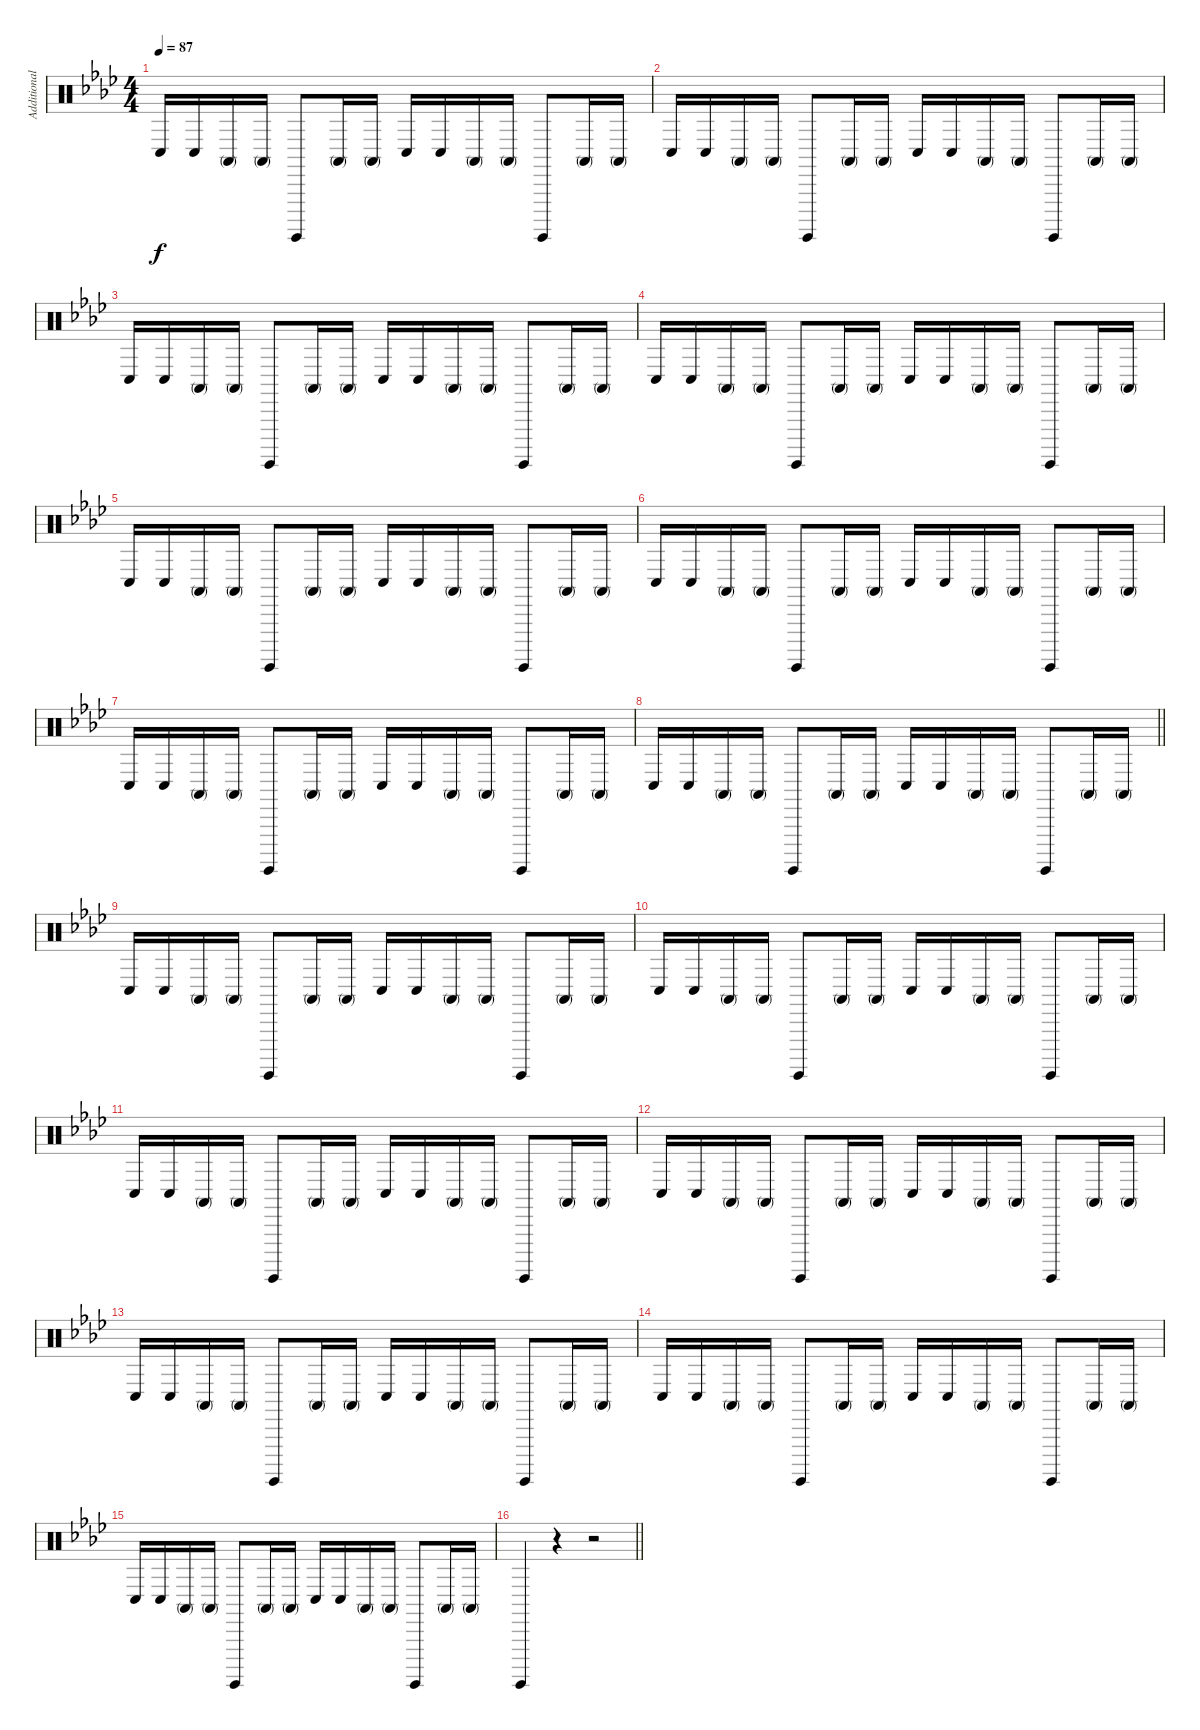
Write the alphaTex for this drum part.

\track ("Additional Percussion" "Additional") {instrument percussion}
\staff {score}
\articulation defaults
\ts (4 4)
\section ("" " ")
\tempo 87
\clef neutral
\ks fminor "Conga low (hit)".16{dy f} "Conga low (hit)".16 "Conga high (mute)".16 "Conga high (mute)".16 "Surdo (hit)".8 "Conga high (mute)".16 "Conga high (mute)".16 "Conga low (hit)".16 "Conga low (hit)".16 "Conga high (mute)".16 "Conga high (mute)".16 "Surdo (hit)".8 "Conga high (mute)".16 "Conga high (mute)".16
|
"Conga low (hit)".16 "Conga low (hit)".16 "Conga high (mute)".16 "Conga high (mute)".16 "Surdo (hit)".8 "Conga high (mute)".16 "Conga high (mute)".16 "Conga low (hit)".16 "Conga low (hit)".16 "Conga high (mute)".16 "Conga high (mute)".16 "Surdo (hit)".8 "Conga high (mute)".16 "Conga high (mute)".16 |
"Conga low (hit)".16 "Conga low (hit)".16 "Conga high (mute)".16 "Conga high (mute)".16 "Surdo (hit)".8 "Conga high (mute)".16 "Conga high (mute)".16 "Conga low (hit)".16 "Conga low (hit)".16 "Conga high (mute)".16 "Conga high (mute)".16 "Surdo (hit)".8 "Conga high (mute)".16 "Conga high (mute)".16 |
"Conga low (hit)".16 "Conga low (hit)".16 "Conga high (mute)".16 "Conga high (mute)".16 "Surdo (hit)".8 "Conga high (mute)".16 "Conga high (mute)".16 "Conga low (hit)".16 "Conga low (hit)".16 "Conga high (mute)".16 "Conga high (mute)".16 "Surdo (hit)".8 "Conga high (mute)".16 "Conga high (mute)".16 |
"Conga low (hit)".16 "Conga low (hit)".16 "Conga high (mute)".16 "Conga high (mute)".16 "Surdo (hit)".8 "Conga high (mute)".16 "Conga high (mute)".16 "Conga low (hit)".16 "Conga low (hit)".16 "Conga high (mute)".16 "Conga high (mute)".16 "Surdo (hit)".8 "Conga high (mute)".16 "Conga high (mute)".16 |
"Conga low (hit)".16 "Conga low (hit)".16 "Conga high (mute)".16 "Conga high (mute)".16 "Surdo (hit)".8 "Conga high (mute)".16 "Conga high (mute)".16 "Conga low (hit)".16 "Conga low (hit)".16 "Conga high (mute)".16 "Conga high (mute)".16 "Surdo (hit)".8 "Conga high (mute)".16 "Conga high (mute)".16 |
"Conga low (hit)".16 "Conga low (hit)".16 "Conga high (mute)".16 "Conga high (mute)".16 "Surdo (hit)".8 "Conga high (mute)".16 "Conga high (mute)".16 "Conga low (hit)".16 "Conga low (hit)".16 "Conga high (mute)".16 "Conga high (mute)".16 "Surdo (hit)".8 "Conga high (mute)".16 "Conga high (mute)".16 |
\barLineRight lightlight "Conga low (hit)".16 "Conga low (hit)".16 "Conga high (mute)".16 "Conga high (mute)".16 "Surdo (hit)".8 "Conga high (mute)".16 "Conga high (mute)".16 "Conga low (hit)".16 "Conga low (hit)".16 "Conga high (mute)".16 "Conga high (mute)".16 "Surdo (hit)".8 "Conga high (mute)".16 "Conga high (mute)".16
|
\section ("" " ")
"Conga low (hit)".16 "Conga low (hit)".16 "Conga high (mute)".16 "Conga high (mute)".16 "Surdo (hit)".8 "Conga high (mute)".16 "Conga high (mute)".16 "Conga low (hit)".16 "Conga low (hit)".16 "Conga high (mute)".16 "Conga high (mute)".16 "Surdo (hit)".8 "Conga high (mute)".16 "Conga high (mute)".16 |
"Conga low (hit)".16 "Conga low (hit)".16 "Conga high (mute)".16 "Conga high (mute)".16 "Surdo (hit)".8 "Conga high (mute)".16 "Conga high (mute)".16 "Conga low (hit)".16 "Conga low (hit)".16 "Conga high (mute)".16 "Conga high (mute)".16 "Surdo (hit)".8 "Conga high (mute)".16 "Conga high (mute)".16 |
"Conga low (hit)".16 "Conga low (hit)".16 "Conga high (mute)".16 "Conga high (mute)".16 "Surdo (hit)".8 "Conga high (mute)".16 "Conga high (mute)".16 "Conga low (hit)".16 "Conga low (hit)".16 "Conga high (mute)".16 "Conga high (mute)".16 "Surdo (hit)".8 "Conga high (mute)".16 "Conga high (mute)".16 |
"Conga low (hit)".16 "Conga low (hit)".16 "Conga high (mute)".16 "Conga high (mute)".16 "Surdo (hit)".8 "Conga high (mute)".16 "Conga high (mute)".16 "Conga low (hit)".16 "Conga low (hit)".16 "Conga high (mute)".16 "Conga high (mute)".16 "Surdo (hit)".8 "Conga high (mute)".16 "Conga high (mute)".16 |
"Conga low (hit)".16 "Conga low (hit)".16 "Conga high (mute)".16 "Conga high (mute)".16 "Surdo (hit)".8 "Conga high (mute)".16 "Conga high (mute)".16 "Conga low (hit)".16 "Conga low (hit)".16 "Conga high (mute)".16 "Conga high (mute)".16 "Surdo (hit)".8 "Conga high (mute)".16 "Conga high (mute)".16 |
"Conga low (hit)".16 "Conga low (hit)".16 "Conga high (mute)".16 "Conga high (mute)".16 "Surdo (hit)".8 "Conga high (mute)".16 "Conga high (mute)".16 "Conga low (hit)".16 "Conga low (hit)".16 "Conga high (mute)".16 "Conga high (mute)".16 "Surdo (hit)".8 "Conga high (mute)".16 "Conga high (mute)".16 |
"Conga low (hit)".16 "Conga low (hit)".16 "Conga high (mute)".16 "Conga high (mute)".16 "Surdo (hit)".8 "Conga high (mute)".16 "Conga high (mute)".16 "Conga low (hit)".16 "Conga low (hit)".16 "Conga high (mute)".16 "Conga high (mute)".16 "Surdo (hit)".8 "Conga high (mute)".16 "Conga high (mute)".16 |
\barLineRight lightlight "Surdo (hit)".4
r.4 r.2
